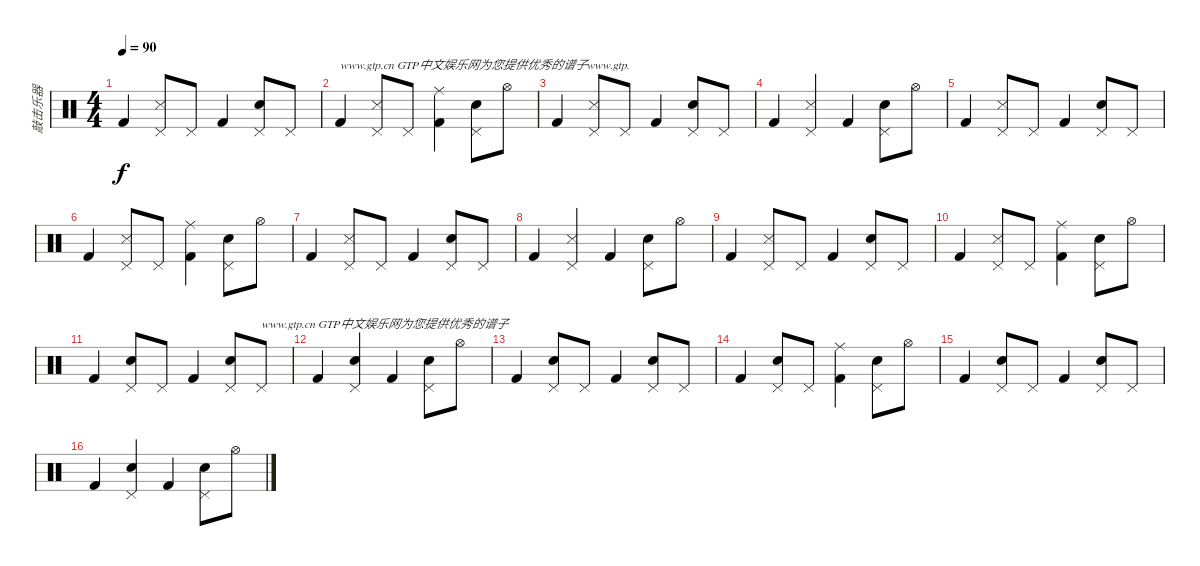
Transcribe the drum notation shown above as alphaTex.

\track ("敲击乐器" "敲击乐器") {instrument percussion}
\staff {score}
\articulation defaults
\ts (4 4)
\tempo 90
\clef neutral
\ks c "Kick (hit) 2".4{dy f}
("Metronome (hit)" "Pedal Hi-Hat (hit)").8 "Pedal Hi-Hat (hit)".8 "Kick (hit) 2".4 ("Snare (hit) 2" "Pedal Hi-Hat (hit)").8 "Pedal Hi-Hat (hit)".8 |
"Kick (hit) 2".4{txt "www.gtp.cn GTP中文娱乐网为您提供优秀的谱子www.gtp."} ("Metronome (hit)" "Pedal Hi-Hat (hit)").8 "Pedal Hi-Hat (hit)".8 ("Ride (middle)" "Kick (hit) 2").4 ("Snare (hit) 2" "Pedal Hi-Hat (hit)").8 "Hi-Hat (open)".8 |
"Kick (hit) 2".4 ("Metronome (hit)" "Pedal Hi-Hat (hit)").8 "Pedal Hi-Hat (hit)".8 "Kick (hit) 2".4 ("Snare (hit) 2" "Pedal Hi-Hat (hit)").8 "Pedal Hi-Hat (hit)".8 |
"Kick (hit) 2".4 ("Metronome (hit)" "Pedal Hi-Hat (hit)").4 "Kick (hit) 2".4 ("Snare (hit) 2" "Pedal Hi-Hat (hit)").8 "Hi-Hat (open)".8 |
"Kick (hit) 2".4 ("Metronome (hit)" "Pedal Hi-Hat (hit)").8 "Pedal Hi-Hat (hit)".8 "Kick (hit) 2".4 ("Snare (hit) 2" "Pedal Hi-Hat (hit)").8 "Pedal Hi-Hat (hit)".8 |
"Kick (hit) 2".4 ("Metronome (hit)" "Pedal Hi-Hat (hit)").8 "Pedal Hi-Hat (hit)".8 ("Ride (middle)" "Kick (hit) 2").4 ("Snare (hit) 2" "Pedal Hi-Hat (hit)").8 "Hi-Hat (open)".8 |
"Kick (hit) 2".4 ("Metronome (hit)" "Pedal Hi-Hat (hit)").8 "Pedal Hi-Hat (hit)".8 "Kick (hit) 2".4 ("Snare (hit) 2" "Pedal Hi-Hat (hit)").8 "Pedal Hi-Hat (hit)".8 |
"Kick (hit) 2".4 ("Metronome (hit)" "Pedal Hi-Hat (hit)").4 "Kick (hit) 2".4 ("Snare (hit) 2" "Pedal Hi-Hat (hit)").8 "Hi-Hat (open)".8 |
"Kick (hit) 2".4 ("Metronome (hit)" "Pedal Hi-Hat (hit)").8 "Pedal Hi-Hat (hit)".8 "Kick (hit) 2".4 ("Snare (hit) 2" "Pedal Hi-Hat (hit)").8 "Pedal Hi-Hat (hit)".8 |
"Kick (hit) 2".4 ("Metronome (hit)" "Pedal Hi-Hat (hit)").8 "Pedal Hi-Hat (hit)".8 ("Ride (middle)" "Kick (hit) 2").4 ("Snare (hit) 2" "Pedal Hi-Hat (hit)").8 "Hi-Hat (open)".8 |
"Kick (hit) 2".4 ("Snare (hit) 2" "Pedal Hi-Hat (hit)").8 "Pedal Hi-Hat (hit)".8 "Kick (hit) 2".4 ("Snare (hit) 2" "Pedal Hi-Hat (hit)").8 "Pedal Hi-Hat (hit)".8{txt "www.gtp.cn GTP中文娱乐网为您提供优秀的谱子"} |
"Kick (hit) 2".4 ("Snare (hit) 2" "Pedal Hi-Hat (hit)").4 "Kick (hit) 2".4 ("Snare (hit) 2" "Pedal Hi-Hat (hit)").8 "Hi-Hat (open)".8 |
"Kick (hit) 2".4 ("Snare (hit) 2" "Pedal Hi-Hat (hit)").8 "Pedal Hi-Hat (hit)".8 "Kick (hit) 2".4 ("Snare (hit) 2" "Pedal Hi-Hat (hit)").8 "Pedal Hi-Hat (hit)".8 |
"Kick (hit) 2".4 ("Snare (hit) 2" "Pedal Hi-Hat (hit)").8 "Pedal Hi-Hat (hit)".8 ("Ride (middle)" "Kick (hit) 2").4 ("Snare (hit) 2" "Pedal Hi-Hat (hit)").8 "Hi-Hat (open)".8 |
"Kick (hit) 2".4 ("Snare (hit) 2" "Pedal Hi-Hat (hit)").8 "Pedal Hi-Hat (hit)".8 "Kick (hit) 2".4 ("Snare (hit) 2" "Pedal Hi-Hat (hit)").8 "Pedal Hi-Hat (hit)".8 |
"Kick (hit) 2".4 ("Snare (hit) 2" "Pedal Hi-Hat (hit)").4 "Kick (hit) 2".4 ("Snare (hit) 2" "Pedal Hi-Hat (hit)").8 "Hi-Hat (open)".8
